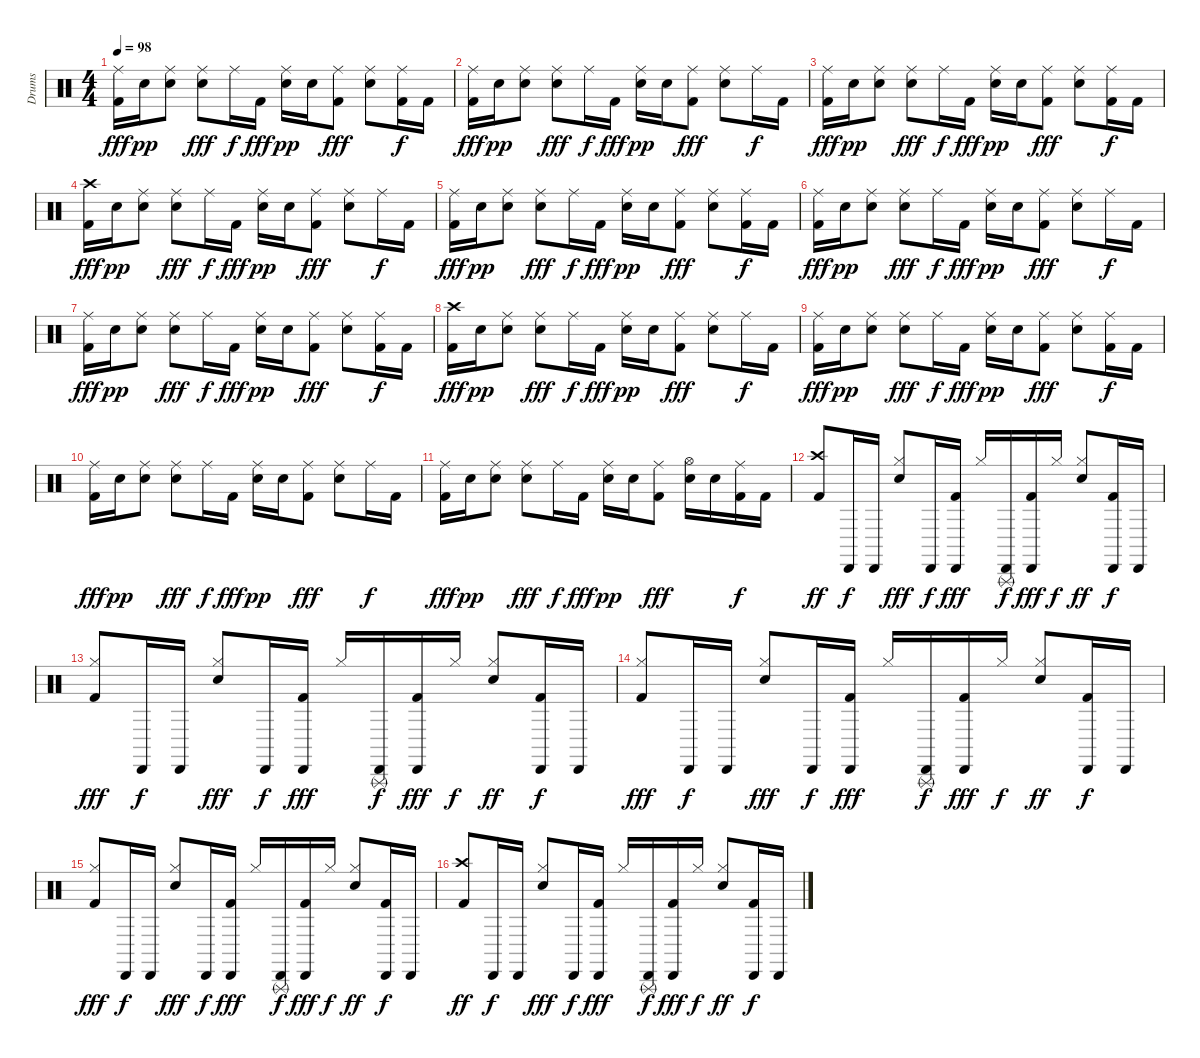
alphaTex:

\track ("Drums" "Drums") {instrument percussion}
\staff {score}
\articulation defaults
\ts (4 4)
\tempo 98
\clef neutral
\ks c
("Kick (hit) 2" "Ride (middle)").16{dy fff} "Electric Snare (hit)".16{dy pp} ("Ride (middle)" "Electric Snare (hit)").8 ("Snare (hit) 2" "Ride (middle)").8{dy fff} "Ride (middle)".16{dy f} "Kick (hit) 2".16{dy fff} ("Ride (middle)" "Electric Snare (hit)").16{dy pp} "Electric Snare (hit)".16 ("Kick (hit) 2" "Ride (middle)").8{dy fff} ("Snare (hit) 2" "Ride (middle)").8 ("Kick (hit) 2" "Ride (middle)").16{dy f} "Kick (hit) 2".16 |
("Kick (hit) 2" "Ride (middle)").16{dy fff} "Electric Snare (hit)".16{dy pp} ("Ride (middle)" "Electric Snare (hit)").8 ("Snare (hit) 2" "Ride (middle)").8{dy fff} "Ride (middle)".16{dy f} "Kick (hit) 2".16{dy fff} ("Ride (middle)" "Electric Snare (hit)").16{dy pp} "Electric Snare (hit)".16 ("Kick (hit) 2" "Ride (middle)").8{dy fff} ("Snare (hit) 2" "Ride (middle)").8 "Ride (middle)".16{dy f} "Kick (hit) 2".16 |
("Kick (hit) 2" "Ride (middle)").16{dy fff} "Electric Snare (hit)".16{dy pp} ("Ride (middle)" "Electric Snare (hit)").8 ("Snare (hit) 2" "Ride (middle)").8{dy fff} "Ride (middle)".16{dy f} "Kick (hit) 2".16{dy fff} ("Ride (middle)" "Electric Snare (hit)").16{dy pp} "Electric Snare (hit)".16 ("Kick (hit) 2" "Ride (middle)").8{dy fff} ("Snare (hit) 2" "Ride (middle)").8 ("Kick (hit) 2" "Ride (middle)").16{dy f} "Kick (hit) 2".16 |
("Kick (hit) 2" "Crash high (hit)").16{dy fff} "Electric Snare (hit)".16{dy pp} ("Ride (middle)" "Electric Snare (hit)").8 ("Snare (hit) 2" "Ride (middle)").8{dy fff} "Ride (middle)".16{dy f} "Kick (hit) 2".16{dy fff} ("Ride (middle)" "Electric Snare (hit)").16{dy pp} "Electric Snare (hit)".16 ("Kick (hit) 2" "Ride (middle)").8{dy fff} ("Snare (hit) 2" "Ride (middle)").8 "Ride (middle)".16{dy f} "Kick (hit) 2".16 |
("Kick (hit) 2" "Ride (middle)").16{dy fff} "Electric Snare (hit)".16{dy pp} ("Ride (middle)" "Electric Snare (hit)").8 ("Snare (hit) 2" "Ride (middle)").8{dy fff} "Ride (middle)".16{dy f} "Kick (hit) 2".16{dy fff} ("Ride (middle)" "Electric Snare (hit)").16{dy pp} "Electric Snare (hit)".16 ("Kick (hit) 2" "Ride (middle)").8{dy fff} ("Snare (hit) 2" "Ride (middle)").8 ("Kick (hit) 2" "Ride (middle)").16{dy f} "Kick (hit) 2".16 |
("Kick (hit) 2" "Ride (middle)").16{dy fff} "Electric Snare (hit)".16{dy pp} ("Ride (middle)" "Electric Snare (hit)").8 ("Snare (hit) 2" "Ride (middle)").8{dy fff} "Ride (middle)".16{dy f} "Kick (hit) 2".16{dy fff} ("Ride (middle)" "Electric Snare (hit)").16{dy pp} "Electric Snare (hit)".16 ("Kick (hit) 2" "Ride (middle)").8{dy fff} ("Snare (hit) 2" "Ride (middle)").8 "Ride (middle)".16{dy f} "Kick (hit) 2".16 |
("Kick (hit) 2" "Ride (middle)").16{dy fff} "Electric Snare (hit)".16{dy pp} ("Ride (middle)" "Electric Snare (hit)").8 ("Snare (hit) 2" "Ride (middle)").8{dy fff} "Ride (middle)".16{dy f} "Kick (hit) 2".16{dy fff} ("Ride (middle)" "Electric Snare (hit)").16{dy pp} "Electric Snare (hit)".16 ("Kick (hit) 2" "Ride (middle)").8{dy fff} ("Snare (hit) 2" "Ride (middle)").8 ("Kick (hit) 2" "Ride (middle)").16{dy f} "Kick (hit) 2".16 |
("Kick (hit) 2" "Crash high (hit)").16{dy fff} "Electric Snare (hit)".16{dy pp} ("Ride (middle)" "Electric Snare (hit)").8 ("Snare (hit) 2" "Ride (middle)").8{dy fff} "Ride (middle)".16{dy f} "Kick (hit) 2".16{dy fff} ("Ride (middle)" "Electric Snare (hit)").16{dy pp} "Electric Snare (hit)".16 ("Kick (hit) 2" "Ride (middle)").8{dy fff} ("Snare (hit) 2" "Ride (middle)").8 "Ride (middle)".16{dy f} "Kick (hit) 2".16 |
("Kick (hit) 2" "Ride (middle)").16{dy fff} "Electric Snare (hit)".16{dy pp} ("Ride (middle)" "Electric Snare (hit)").8 ("Snare (hit) 2" "Ride (middle)").8{dy fff} "Ride (middle)".16{dy f} "Kick (hit) 2".16{dy fff} ("Ride (middle)" "Electric Snare (hit)").16{dy pp} "Electric Snare (hit)".16 ("Kick (hit) 2" "Ride (middle)").8{dy fff} ("Snare (hit) 2" "Ride (middle)").8 ("Kick (hit) 2" "Ride (middle)").16{dy f} "Kick (hit) 2".16 |
("Kick (hit) 2" "Ride (middle)").16{dy fff} "Electric Snare (hit)".16{dy pp} ("Ride (middle)" "Electric Snare (hit)").8 ("Snare (hit) 2" "Ride (middle)").8{dy fff} "Ride (middle)".16{dy f} "Kick (hit) 2".16{dy fff} ("Ride (middle)" "Electric Snare (hit)").16{dy pp} "Electric Snare (hit)".16 ("Kick (hit) 2" "Ride (middle)").8{dy fff} ("Snare (hit) 2" "Ride (middle)").8 "Ride (middle)".16{dy f} "Kick (hit) 2".16 |
("Kick (hit) 2" "Ride (middle)").16{dy fff} "Electric Snare (hit)".16{dy pp} ("Ride (middle)" "Electric Snare (hit)").8 ("Snare (hit) 2" "Ride (middle)").8{dy fff} "Ride (middle)".16{dy f} "Kick (hit) 2".16{dy fff} ("Ride (middle)" "Electric Snare (hit)").16{dy pp} "Electric Snare (hit)".16 ("Kick (hit) 2" "Ride (middle)").8{dy fff} ("Snare (hit) 2" "Hi-Hat (open)").16 "Snare (hit) 2".16 ("Kick (hit) 2" "Ride (middle)").16{dy f} "Kick (hit) 2".16 |
("Kick (hit) 2" "Crash high (hit)").8{dy ff} "Cabasa (hit)".16{dy f} "Cabasa (hit)".16 ("Snare (hit) 2" "Hi-Hat (closed)").8{dy fff} "Cabasa (hit)".16{dy f} ("Kick (hit) 2" "Cabasa (hit)").16{dy fff} "Hi-Hat (closed)".16 ("Triangle (rnute)" "Cabasa (hit)").16{dy f} ("Kick (hit) 2" "Cabasa (hit)").16{dy fff} "Hi-Hat (closed)".16{dy f} ("Snare (hit) 2" "Hi-Hat (closed)").8{dy ff} ("Kick (hit) 2" "Cabasa (hit)").16{dy f} "Cabasa (hit)".16 |
("Kick (hit) 2" "Hi-Hat (closed)").8{dy fff} "Cabasa (hit)".16{dy f} "Cabasa (hit)".16 ("Snare (hit) 2" "Hi-Hat (closed)").8{dy fff} "Cabasa (hit)".16{dy f} ("Kick (hit) 2" "Cabasa (hit)").16{dy fff} "Hi-Hat (closed)".16 ("Triangle (rnute)" "Cabasa (hit)").16{dy f} ("Kick (hit) 2" "Cabasa (hit)").16{dy fff} "Hi-Hat (closed)".16{dy f} ("Snare (hit) 2" "Hi-Hat (closed)").8{dy ff} ("Kick (hit) 2" "Cabasa (hit)").16{dy f} "Cabasa (hit)".16 |
("Kick (hit) 2" "Hi-Hat (closed)").8{dy fff} "Cabasa (hit)".16{dy f} "Cabasa (hit)".16 ("Snare (hit) 2" "Hi-Hat (closed)").8{dy fff} "Cabasa (hit)".16{dy f} ("Kick (hit) 2" "Cabasa (hit)").16{dy fff} "Hi-Hat (closed)".16 ("Triangle (rnute)" "Cabasa (hit)").16{dy f} ("Kick (hit) 2" "Cabasa (hit)").16{dy fff} "Hi-Hat (closed)".16{dy f} ("Snare (hit) 2" "Hi-Hat (closed)").8{dy ff} ("Kick (hit) 2" "Cabasa (hit)").16{dy f} "Cabasa (hit)".16 |
("Kick (hit) 2" "Hi-Hat (closed)").8{dy fff} "Cabasa (hit)".16{dy f} "Cabasa (hit)".16 ("Snare (hit) 2" "Hi-Hat (closed)").8{dy fff} "Cabasa (hit)".16{dy f} ("Kick (hit) 2" "Cabasa (hit)").16{dy fff} "Hi-Hat (closed)".16 ("Triangle (rnute)" "Cabasa (hit)").16{dy f} ("Kick (hit) 2" "Cabasa (hit)").16{dy fff} "Hi-Hat (closed)".16{dy f} ("Snare (hit) 2" "Hi-Hat (closed)").8{dy ff} ("Kick (hit) 2" "Cabasa (hit)").16{dy f} "Cabasa (hit)".16 |
("Kick (hit) 2" "Crash high (hit)").8{dy ff} "Cabasa (hit)".16{dy f} "Cabasa (hit)".16 ("Snare (hit) 2" "Hi-Hat (closed)").8{dy fff} "Cabasa (hit)".16{dy f} ("Kick (hit) 2" "Cabasa (hit)").16{dy fff} "Hi-Hat (closed)".16 ("Triangle (rnute)" "Cabasa (hit)").16{dy f} ("Kick (hit) 2" "Cabasa (hit)").16{dy fff} "Hi-Hat (closed)".16{dy f} ("Snare (hit) 2" "Hi-Hat (closed)").8{dy ff} ("Kick (hit) 2" "Cabasa (hit)").16{dy f} "Cabasa (hit)".16
